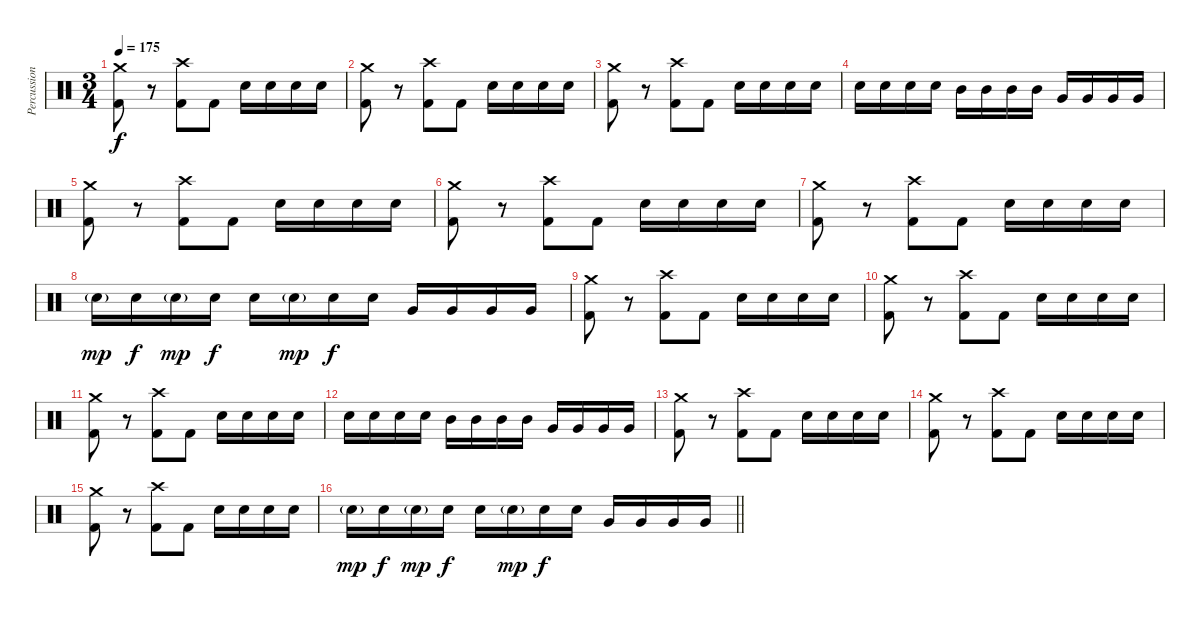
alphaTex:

\track ("Percussion" "Percussion") {instrument percussion}
\staff {score}
\articulation defaults
\ts (3 4)
\tempo 175
\clef neutral
\ks c
("Crash medium (hit)" "Kick (hit) 2").8{dy f} r.8 ("Crash high (hit)" "Kick (hit) 2").8 "Kick (hit) 2".8 "Electric Snare (hit)".16 "Electric Snare (hit)".16 "Electric Snare (hit)".16 "Electric Snare (hit)".16 |
("Crash medium (hit)" "Kick (hit) 2").8 r.8 ("Crash high (hit)" "Kick (hit) 2").8 "Kick (hit) 2".8 "Electric Snare (hit)".16 "Electric Snare (hit)".16 "Electric Snare (hit)".16 "Electric Snare (hit)".16 |
("Crash medium (hit)" "Kick (hit) 2").8 r.8 ("Crash high (hit)" "Kick (hit) 2").8 "Kick (hit) 2".8 "Electric Snare (hit)".16 "Electric Snare (hit)".16 "Electric Snare (hit)".16 "Electric Snare (hit)".16 |
"Electric Snare (hit)".16 "Electric Snare (hit)".16 "Electric Snare (hit)".16 "Electric Snare (hit)".16 "Mid Tom (hit)".16 "Mid Tom (hit)".16 "Mid Tom (hit)".16 "Mid Tom (hit)".16 "Very Low Tom (hit)".16 "Very Low Tom (hit)".16 "Very Low Tom (hit)".16 "Very Low Tom (hit)".16 |
("Crash medium (hit)" "Kick (hit) 2").8 r.8 ("Crash high (hit)" "Kick (hit) 2").8 "Kick (hit) 2".8 "Electric Snare (hit)".16 "Electric Snare (hit)".16 "Electric Snare (hit)".16 "Electric Snare (hit)".16 |
("Crash medium (hit)" "Kick (hit) 2").8 r.8 ("Crash high (hit)" "Kick (hit) 2").8 "Kick (hit) 2".8 "Electric Snare (hit)".16 "Electric Snare (hit)".16 "Electric Snare (hit)".16 "Electric Snare (hit)".16 |
("Crash medium (hit)" "Kick (hit) 2").8 r.8 ("Crash high (hit)" "Kick (hit) 2").8 "Kick (hit) 2".8 "Electric Snare (hit)".16 "Electric Snare (hit)".16 "Electric Snare (hit)".16 "Electric Snare (hit)".16 |
"Electric Snare (hit)"{g}.16{dy mp} "Electric Snare (hit)".16{dy f} "Electric Snare (hit)"{g}.16{dy mp} "Electric Snare (hit)".16{dy f} "Electric Snare (hit)".16 "Electric Snare (hit)"{g}.16{dy mp} "Electric Snare (hit)".16{dy f} "Electric Snare (hit)".16 "Very Low Tom (hit)".16 "Very Low Tom (hit)".16 "Very Low Tom (hit)".16 "Very Low Tom (hit)".16 |
("Crash medium (hit)" "Kick (hit) 2").8 r.8 ("Crash high (hit)" "Kick (hit) 2").8 "Kick (hit) 2".8 "Electric Snare (hit)".16 "Electric Snare (hit)".16 "Electric Snare (hit)".16 "Electric Snare (hit)".16 |
("Crash medium (hit)" "Kick (hit) 2").8 r.8 ("Crash high (hit)" "Kick (hit) 2").8 "Kick (hit) 2".8 "Electric Snare (hit)".16 "Electric Snare (hit)".16 "Electric Snare (hit)".16 "Electric Snare (hit)".16 |
("Crash medium (hit)" "Kick (hit) 2").8 r.8 ("Crash high (hit)" "Kick (hit) 2").8 "Kick (hit) 2".8 "Electric Snare (hit)".16 "Electric Snare (hit)".16 "Electric Snare (hit)".16 "Electric Snare (hit)".16 |
"Electric Snare (hit)".16 "Electric Snare (hit)".16 "Electric Snare (hit)".16 "Electric Snare (hit)".16 "Mid Tom (hit)".16 "Mid Tom (hit)".16 "Mid Tom (hit)".16 "Mid Tom (hit)".16 "Very Low Tom (hit)".16 "Very Low Tom (hit)".16 "Very Low Tom (hit)".16 "Very Low Tom (hit)".16 |
("Crash medium (hit)" "Kick (hit) 2").8 r.8 ("Crash high (hit)" "Kick (hit) 2").8 "Kick (hit) 2".8 "Electric Snare (hit)".16 "Electric Snare (hit)".16 "Electric Snare (hit)".16 "Electric Snare (hit)".16 |
("Crash medium (hit)" "Kick (hit) 2").8 r.8 ("Crash high (hit)" "Kick (hit) 2").8 "Kick (hit) 2".8 "Electric Snare (hit)".16 "Electric Snare (hit)".16 "Electric Snare (hit)".16 "Electric Snare (hit)".16 |
("Crash medium (hit)" "Kick (hit) 2").8 r.8 ("Crash high (hit)" "Kick (hit) 2").8 "Kick (hit) 2".8 "Electric Snare (hit)".16 "Electric Snare (hit)".16 "Electric Snare (hit)".16 "Electric Snare (hit)".16 |
\barLineRight lightlight "Electric Snare (hit)"{g}.16{dy mp} "Electric Snare (hit)".16{dy f} "Electric Snare (hit)"{g}.16{dy mp} "Electric Snare (hit)".16{dy f} "Electric Snare (hit)".16 "Electric Snare (hit)"{g}.16{dy mp} "Electric Snare (hit)".16{dy f} "Electric Snare (hit)".16 "Very Low Tom (hit)".16 "Very Low Tom (hit)".16 "Very Low Tom (hit)".16 "Very Low Tom (hit)".16
